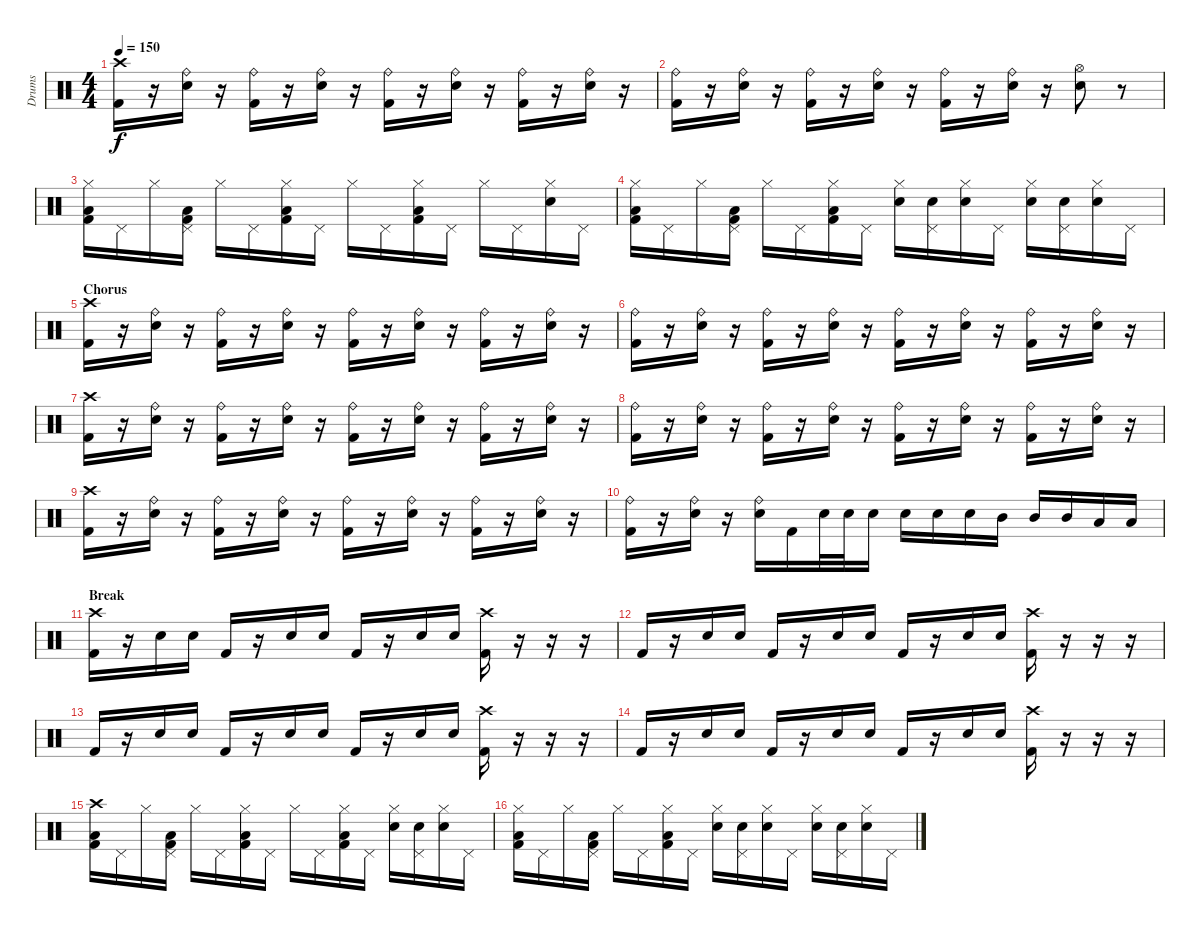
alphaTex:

\track ("Drums" "Drums") {instrument percussion}
\staff {score}
\articulation defaults
\ts (4 4)
\tempo 150
\clef neutral
\ks c
("Crash high (hit)" "Kick (hit) 2").16{dy f} r.16 ("Ride (bell)" "Electric Snare (hit)").16 r.16 ("Ride (bell)" "Kick (hit) 2").16 r.16 ("Ride (bell)" "Electric Snare (hit)").16 r.16 ("Ride (bell)" "Kick (hit) 2").16 r.16 ("Ride (bell)" "Electric Snare (hit)").16 r.16 ("Ride (bell)" "Kick (hit) 2").16 r.16 ("Ride (bell)" "Electric Snare (hit)").16 r.16 |
("Ride (bell)" "Kick (hit) 2").16 r.16 ("Ride (bell)" "Electric Snare (hit)").16 r.16 ("Ride (bell)" "Kick (hit) 2").16 r.16 ("Ride (bell)" "Electric Snare (hit)").16 r.16 ("Ride (bell)" "Kick (hit) 2").16 r.16 ("Ride (bell)" "Electric Snare (hit)").16 r.16 ("Hi-Hat (open)" "Electric Snare (hit)").8 r.8 |
("Hi-Hat (closed)" "Low Floor Tom (hit)" "Kick (hit) 2").16 "Pedal Hi-Hat (hit)".16 "Hi-Hat (closed)".16 ("Pedal Hi-Hat (hit)" "Low Floor Tom (hit)" "Kick (hit) 2").16 "Hi-Hat (closed)".16 "Pedal Hi-Hat (hit)".16 ("Hi-Hat (closed)" "Low Floor Tom (hit)" "Kick (hit) 2").16 "Pedal Hi-Hat (hit)".16 "Hi-Hat (closed)".16 "Pedal Hi-Hat (hit)".16 ("Hi-Hat (closed)" "Low Floor Tom (hit)" "Kick (hit) 2").16 "Pedal Hi-Hat (hit)".16 "Hi-Hat (closed)".16 "Pedal Hi-Hat (hit)".16 ("Hi-Hat (closed)" "Electric Snare (hit)").16 "Pedal Hi-Hat (hit)".16 |
("Hi-Hat (closed)" "Low Floor Tom (hit)" "Kick (hit) 2").16 "Pedal Hi-Hat (hit)".16 "Hi-Hat (closed)".16 ("Pedal Hi-Hat (hit)" "Low Floor Tom (hit)" "Kick (hit) 2").16 "Hi-Hat (closed)".16 "Pedal Hi-Hat (hit)".16 ("Hi-Hat (closed)" "Low Floor Tom (hit)" "Kick (hit) 2").16 "Pedal Hi-Hat (hit)".16 ("Hi-Hat (closed)" "Electric Snare (hit)").16 ("Pedal Hi-Hat (hit)" "Electric Snare (hit)").16 ("Hi-Hat (closed)" "Electric Snare (hit)").16 "Pedal Hi-Hat (hit)".16 ("Hi-Hat (closed)" "Electric Snare (hit)").16 ("Pedal Hi-Hat (hit)" "Electric Snare (hit)").16 ("Hi-Hat (closed)" "Electric Snare (hit)").16 "Pedal Hi-Hat (hit)".16 |
\section ("" "Chorus")
("Crash high (hit)" "Kick (hit) 2").16 r.16 ("Ride (bell)" "Electric Snare (hit)").16 r.16 ("Ride (bell)" "Kick (hit) 2").16 r.16 ("Ride (bell)" "Electric Snare (hit)").16 r.16 ("Ride (bell)" "Kick (hit) 2").16 r.16 ("Ride (bell)" "Electric Snare (hit)").16 r.16 ("Ride (bell)" "Kick (hit) 2").16 r.16 ("Ride (bell)" "Electric Snare (hit)").16 r.16 |
("Ride (bell)" "Kick (hit) 2").16 r.16 ("Ride (bell)" "Electric Snare (hit)").16 r.16 ("Ride (bell)" "Kick (hit) 2").16 r.16 ("Ride (bell)" "Electric Snare (hit)").16 r.16 ("Ride (bell)" "Kick (hit) 2").16 r.16 ("Ride (bell)" "Electric Snare (hit)").16 r.16 ("Ride (bell)" "Kick (hit) 2").16 r.16 ("Ride (bell)" "Electric Snare (hit)").16 r.16 |
("Crash high (hit)" "Kick (hit) 2").16 r.16 ("Ride (bell)" "Electric Snare (hit)").16 r.16 ("Ride (bell)" "Kick (hit) 2").16 r.16 ("Ride (bell)" "Electric Snare (hit)").16 r.16 ("Ride (bell)" "Kick (hit) 2").16 r.16 ("Ride (bell)" "Electric Snare (hit)").16 r.16 ("Ride (bell)" "Kick (hit) 2").16 r.16 ("Ride (bell)" "Electric Snare (hit)").16 r.16 |
("Ride (bell)" "Kick (hit) 2").16 r.16 ("Ride (bell)" "Electric Snare (hit)").16 r.16 ("Ride (bell)" "Kick (hit) 2").16 r.16 ("Ride (bell)" "Electric Snare (hit)").16 r.16 ("Ride (bell)" "Kick (hit) 2").16 r.16 ("Ride (bell)" "Electric Snare (hit)").16 r.16 ("Ride (bell)" "Kick (hit) 2").16 r.16 ("Ride (bell)" "Electric Snare (hit)").16 r.16 |
("Crash high (hit)" "Kick (hit) 2").16 r.16 ("Ride (bell)" "Electric Snare (hit)").16 r.16 ("Ride (bell)" "Kick (hit) 2").16 r.16 ("Ride (bell)" "Electric Snare (hit)").16 r.16 ("Ride (bell)" "Kick (hit) 2").16 r.16 ("Ride (bell)" "Electric Snare (hit)").16 r.16 ("Ride (bell)" "Kick (hit) 2").16 r.16 ("Ride (bell)" "Electric Snare (hit)").16 r.16 |
("Ride (bell)" "Kick (hit) 2").16 r.16 ("Ride (bell)" "Electric Snare (hit)").16 r.16 ("Ride (bell)" "Electric Snare (hit)").16 "Kick (hit) 2".16 "Electric Snare (hit)".32 "Electric Snare (hit)".32 "Electric Snare (hit)".16 "Electric Snare (hit)".16 "Electric Snare (hit)".16 "Electric Snare (hit)".16 "Mid Tom (hit)".16 "Mid Tom (hit)".16 "Mid Tom (hit)".16 "Low Tom (hit)".16 "Low Tom (hit)".16 |
\section ("" "Break")
("Crash high (hit)" "Kick (hit) 2").16 r.16 "Electric Snare (hit)".16 "Electric Snare (hit)".16 "Kick (hit) 2".16 r.16 "Electric Snare (hit)".16 "Electric Snare (hit)".16 "Kick (hit) 2".16 r.16 "Electric Snare (hit)".16 "Electric Snare (hit)".16 ("Crash high (hit)" "Kick (hit) 2").16 r.16 r.16 r.16 |
"Kick (hit) 2".16 r.16 "Electric Snare (hit)".16 "Electric Snare (hit)".16 "Kick (hit) 2".16 r.16 "Electric Snare (hit)".16 "Electric Snare (hit)".16 "Kick (hit) 2".16 r.16 "Electric Snare (hit)".16 "Electric Snare (hit)".16 ("Crash high (hit)" "Kick (hit) 2").16 r.16 r.16 r.16 |
"Kick (hit) 2".16 r.16 "Electric Snare (hit)".16 "Electric Snare (hit)".16 "Kick (hit) 2".16 r.16 "Electric Snare (hit)".16 "Electric Snare (hit)".16 "Kick (hit) 2".16 r.16 "Electric Snare (hit)".16 "Electric Snare (hit)".16 ("Crash high (hit)" "Kick (hit) 2").16 r.16 r.16 r.16 |
"Kick (hit) 2".16 r.16 "Electric Snare (hit)".16 "Electric Snare (hit)".16 "Kick (hit) 2".16 r.16 "Electric Snare (hit)".16 "Electric Snare (hit)".16 "Kick (hit) 2".16 r.16 "Electric Snare (hit)".16 "Electric Snare (hit)".16 ("Crash high (hit)" "Kick (hit) 2").16 r.16 r.16 r.16 |
("Crash high (hit)" "Low Floor Tom (hit)" "Kick (hit) 2").16 "Pedal Hi-Hat (hit)".16 "Hi-Hat (closed)".16 ("Pedal Hi-Hat (hit)" "Low Floor Tom (hit)" "Kick (hit) 2").16 "Hi-Hat (closed)".16 "Pedal Hi-Hat (hit)".16 ("Hi-Hat (closed)" "Low Floor Tom (hit)" "Kick (hit) 2").16 "Pedal Hi-Hat (hit)".16 "Hi-Hat (closed)".16 "Pedal Hi-Hat (hit)".16 ("Hi-Hat (closed)" "Low Floor Tom (hit)" "Kick (hit) 2").16 "Pedal Hi-Hat (hit)".16 ("Hi-Hat (closed)" "Electric Snare (hit)").16 ("Pedal Hi-Hat (hit)" "Electric Snare (hit)").16 ("Hi-Hat (closed)" "Electric Snare (hit)").16 "Pedal Hi-Hat (hit)".16 |
("Hi-Hat (closed)" "Low Floor Tom (hit)" "Kick (hit) 2").16 "Pedal Hi-Hat (hit)".16 "Hi-Hat (closed)".16 ("Pedal Hi-Hat (hit)" "Low Floor Tom (hit)" "Kick (hit) 2").16 "Hi-Hat (closed)".16 "Pedal Hi-Hat (hit)".16 ("Hi-Hat (closed)" "Low Floor Tom (hit)" "Kick (hit) 2").16 "Pedal Hi-Hat (hit)".16 ("Hi-Hat (closed)" "Electric Snare (hit)").16 ("Pedal Hi-Hat (hit)" "Electric Snare (hit)").16 ("Hi-Hat (closed)" "Electric Snare (hit)").16 "Pedal Hi-Hat (hit)".16 ("Hi-Hat (closed)" "Electric Snare (hit)").16 ("Pedal Hi-Hat (hit)" "Electric Snare (hit)").16 ("Hi-Hat (closed)" "Electric Snare (hit)").16 "Pedal Hi-Hat (hit)".16
